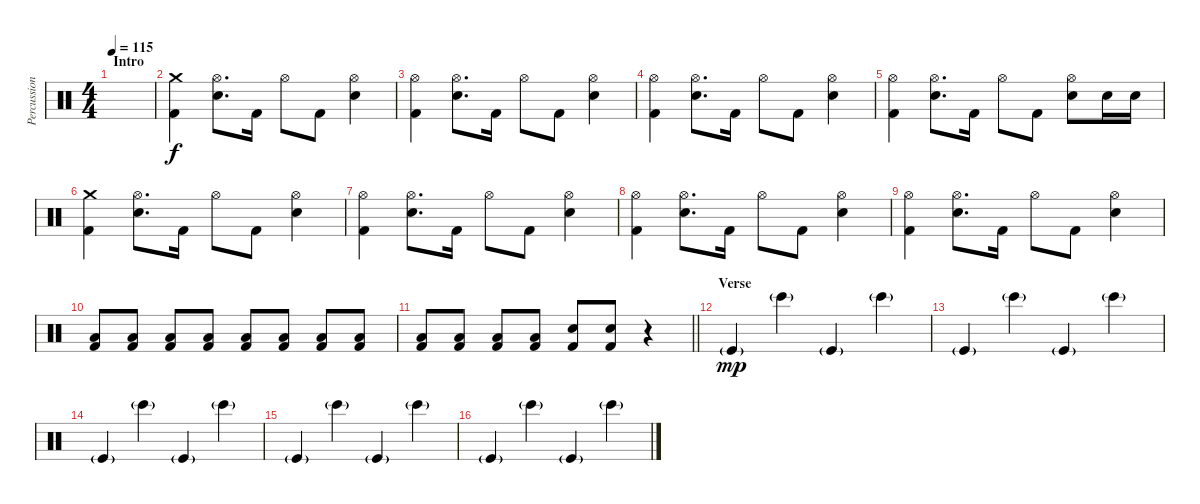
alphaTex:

\track ("Percussion" "Percussion") {instrument percussion}
\staff {score}
\articulation defaults
\ts (4 4)
\section ("" "Intro")
\tempo 115
\clef neutral
\ks c
|
("Crash medium (hit)" "Kick (hit) 2").4 ("Hi-Hat (open)" "Electric Snare (hit)").8{d} "Kick (hit) 2".16 "Hi-Hat (open)".8 "Kick (hit) 2".8 ("Hi-Hat (open)" "Electric Snare (hit)").4 |
("Hi-Hat (open)" "Kick (hit) 2").4 ("Hi-Hat (open)" "Electric Snare (hit)").8{d} "Kick (hit) 2".16 "Hi-Hat (open)".8 "Kick (hit) 2".8 ("Hi-Hat (open)" "Electric Snare (hit)").4 |
("Hi-Hat (open)" "Kick (hit) 2").4 ("Hi-Hat (open)" "Electric Snare (hit)").8{d} "Kick (hit) 2".16 "Hi-Hat (open)".8 "Kick (hit) 2".8 ("Hi-Hat (open)" "Electric Snare (hit)").4 |
("Hi-Hat (open)" "Kick (hit) 2").4 ("Hi-Hat (open)" "Electric Snare (hit)").8{d} "Kick (hit) 2".16 "Hi-Hat (open)".8 "Kick (hit) 2".8 ("Hi-Hat (open)" "Electric Snare (hit)").8 "Electric Snare (hit)".16 "Electric Snare (hit)".16 |
("Crash medium (hit)" "Kick (hit) 2").4 ("Hi-Hat (open)" "Electric Snare (hit)").8{d} "Kick (hit) 2".16 "Hi-Hat (open)".8 "Kick (hit) 2".8 ("Hi-Hat (open)" "Electric Snare (hit)").4 |
("Hi-Hat (open)" "Kick (hit) 2").4 ("Hi-Hat (open)" "Electric Snare (hit)").8{d} "Kick (hit) 2".16 "Hi-Hat (open)".8 "Kick (hit) 2".8 ("Hi-Hat (open)" "Electric Snare (hit)").4 |
("Hi-Hat (open)" "Kick (hit) 2").4 ("Hi-Hat (open)" "Electric Snare (hit)").8{d} "Kick (hit) 2".16 "Hi-Hat (open)".8 "Kick (hit) 2".8 ("Hi-Hat (open)" "Electric Snare (hit)").4 |
("Hi-Hat (open)" "Kick (hit) 2").4 ("Hi-Hat (open)" "Electric Snare (hit)").8{d} "Kick (hit) 2".16 "Hi-Hat (open)".8 "Kick (hit) 2".8 ("Hi-Hat (open)" "Electric Snare (hit)").4 |
("Low Floor Tom (hit)" "Kick (hit) 2").8 ("Low Floor Tom (hit)" "Kick (hit) 2").8 ("Low Floor Tom (hit)" "Kick (hit) 2").8 ("Low Floor Tom (hit)" "Kick (hit) 2").8 ("Low Floor Tom (hit)" "Kick (hit) 2").8 ("Low Floor Tom (hit)" "Kick (hit) 2").8 ("Low Floor Tom (hit)" "Kick (hit) 2").8 ("Low Floor Tom (hit)" "Kick (hit) 2").8 |
\barLineRight lightlight
("Low Floor Tom (hit)" "Kick (hit) 2").8 ("Low Floor Tom (hit)" "Kick (hit) 2").8 ("Low Floor Tom (hit)" "Kick (hit) 2").8 ("Low Floor Tom (hit)" "Kick (hit) 2").8 ("Electric Snare (hit)" "Kick (hit) 2").8 ("Electric Snare (hit)" "Kick (hit) 2").8 r.4 |
\section ("" "Verse")
"Kick (hit)"{g}.4{dy mp} "Bongo High (hit)"{g}.4 "Kick (hit)"{g}.4 "Bongo High (hit)"{g}.4 |
"Kick (hit)"{g}.4 "Bongo High (hit)"{g}.4 "Kick (hit)"{g}.4 "Bongo High (hit)"{g}.4 |
"Kick (hit)"{g}.4 "Bongo High (hit)"{g}.4 "Kick (hit)"{g}.4 "Bongo High (hit)"{g}.4 |
"Kick (hit)"{g}.4 "Bongo High (hit)"{g}.4 "Kick (hit)"{g}.4 "Bongo High (hit)"{g}.4 |
"Kick (hit)"{g}.4 "Bongo High (hit)"{g}.4 "Kick (hit)"{g}.4 "Bongo High (hit)"{g}.4
